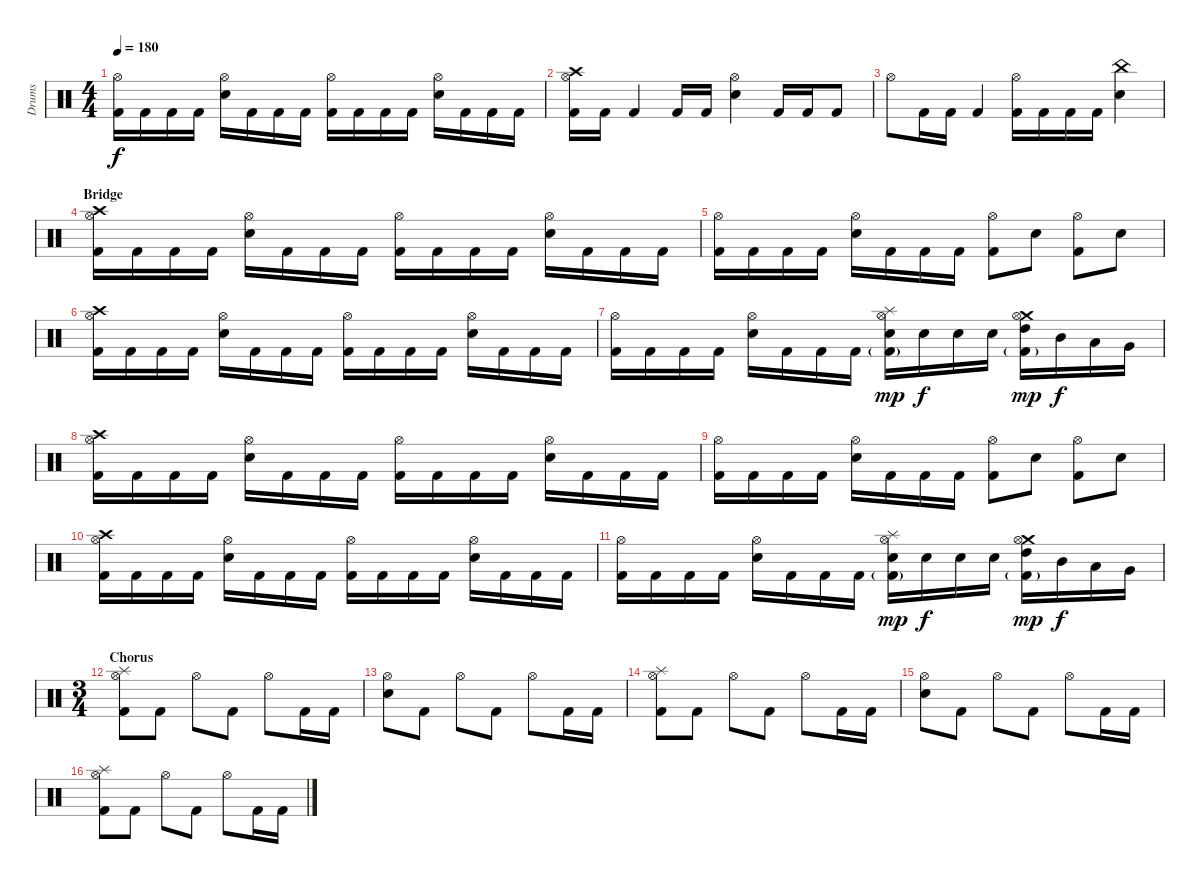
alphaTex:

\track ("Drums" "Drums") {instrument percussion}
\staff {score}
\articulation defaults
\ts (4 4)
\tempo 180
\clef neutral
\ks c
("Hi-Hat (open)" "Kick (hit) 2").16{dy f} "Kick (hit) 2".16 "Kick (hit) 2".16 "Kick (hit) 2".16 ("Hi-Hat (open)" "Electric Snare (hit)").16 "Kick (hit) 2".16 "Kick (hit) 2".16 "Kick (hit) 2".16 ("Hi-Hat (open)" "Kick (hit) 2").16 "Kick (hit) 2".16 "Kick (hit) 2".16 "Kick (hit) 2".16 ("Hi-Hat (open)" "Electric Snare (hit)").16 "Kick (hit) 2".16 "Kick (hit) 2".16 "Kick (hit) 2".16 |
("Crash high (hit)" "Hi-Hat (open)" "Kick (hit) 2").16 "Kick (hit) 2".16 "Kick (hit) 2".4 "Kick (hit) 2".16 "Kick (hit) 2".16 ("Hi-Hat (open)" "Electric Snare (hit)").4 "Kick (hit) 2".16 "Kick (hit) 2".16 "Kick (hit) 2".8 |
"Hi-Hat (open)".8 "Kick (hit) 2".16 "Kick (hit) 2".16 "Kick (hit) 2".4 ("Hi-Hat (open)" "Kick (hit) 2").16 "Kick (hit) 2".16 "Kick (hit) 2".16 "Kick (hit) 2".16 ("China (hit)" "Electric Snare (hit)").4 |
\section ("" "Bridge")
("Crash high (hit)" "Hi-Hat (open)" "Kick (hit) 2").16 "Kick (hit) 2".16 "Kick (hit) 2".16 "Kick (hit) 2".16 ("Hi-Hat (open)" "Electric Snare (hit)").16 "Kick (hit) 2".16 "Kick (hit) 2".16 "Kick (hit) 2".16 ("Hi-Hat (open)" "Kick (hit) 2").16 "Kick (hit) 2".16 "Kick (hit) 2".16 "Kick (hit) 2".16 ("Hi-Hat (open)" "Electric Snare (hit)").16 "Kick (hit) 2".16 "Kick (hit) 2".16 "Kick (hit) 2".16 |
("Hi-Hat (open)" "Kick (hit) 2").16 "Kick (hit) 2".16 "Kick (hit) 2".16 "Kick (hit) 2".16 ("Hi-Hat (open)" "Electric Snare (hit)").16 "Kick (hit) 2".16 "Kick (hit) 2".16 "Kick (hit) 2".16 ("Hi-Hat (open)" "Kick (hit) 2").8 "Electric Snare (hit)".8 ("Hi-Hat (open)" "Kick (hit) 2").8 "Electric Snare (hit)".8 |
("Crash high (hit)" "Hi-Hat (open)" "Kick (hit) 2").16 "Kick (hit) 2".16 "Kick (hit) 2".16 "Kick (hit) 2".16 ("Hi-Hat (open)" "Electric Snare (hit)").16 "Kick (hit) 2".16 "Kick (hit) 2".16 "Kick (hit) 2".16 ("Hi-Hat (open)" "Kick (hit) 2").16 "Kick (hit) 2".16 "Kick (hit) 2".16 "Kick (hit) 2".16 ("Hi-Hat (open)" "Electric Snare (hit)").16 "Kick (hit) 2".16 "Kick (hit) 2".16 "Kick (hit) 2".16 |
("Hi-Hat (open)" "Kick (hit) 2").16 "Kick (hit) 2".16 "Kick (hit) 2".16 "Kick (hit) 2".16 ("Hi-Hat (open)" "Electric Snare (hit)").16 "Kick (hit) 2".16 "Kick (hit) 2".16 "Kick (hit) 2".16 ("Splash (hit)" "Hi-Hat (open)" "Electric Snare (hit)" "Kick (hit) 2"{g}).16{dy mp} "Electric Snare (hit)".16{dy f} "Electric Snare (hit)".16 "Electric Snare (hit)".16 ("Crash medium (hit)" "Hi-Hat (open)" "High Tom (hit)" "Kick (hit) 2"{g}).16{dy mp} "Mid Tom (hit)".16{dy f} "Low Tom (hit)".16 "Very Low Tom (hit)".16 |
("Crash high (hit)" "Hi-Hat (open)" "Kick (hit) 2").16 "Kick (hit) 2".16 "Kick (hit) 2".16 "Kick (hit) 2".16 ("Hi-Hat (open)" "Electric Snare (hit)").16 "Kick (hit) 2".16 "Kick (hit) 2".16 "Kick (hit) 2".16 ("Hi-Hat (open)" "Kick (hit) 2").16 "Kick (hit) 2".16 "Kick (hit) 2".16 "Kick (hit) 2".16 ("Hi-Hat (open)" "Electric Snare (hit)").16 "Kick (hit) 2".16 "Kick (hit) 2".16 "Kick (hit) 2".16 |
("Hi-Hat (open)" "Kick (hit) 2").16 "Kick (hit) 2".16 "Kick (hit) 2".16 "Kick (hit) 2".16 ("Hi-Hat (open)" "Electric Snare (hit)").16 "Kick (hit) 2".16 "Kick (hit) 2".16 "Kick (hit) 2".16 ("Hi-Hat (open)" "Kick (hit) 2").8 "Electric Snare (hit)".8 ("Hi-Hat (open)" "Kick (hit) 2").8 "Electric Snare (hit)".8 |
("Crash high (hit)" "Hi-Hat (open)" "Kick (hit) 2").16 "Kick (hit) 2".16 "Kick (hit) 2".16 "Kick (hit) 2".16 ("Hi-Hat (open)" "Electric Snare (hit)").16 "Kick (hit) 2".16 "Kick (hit) 2".16 "Kick (hit) 2".16 ("Hi-Hat (open)" "Kick (hit) 2").16 "Kick (hit) 2".16 "Kick (hit) 2".16 "Kick (hit) 2".16 ("Hi-Hat (open)" "Electric Snare (hit)").16 "Kick (hit) 2".16 "Kick (hit) 2".16 "Kick (hit) 2".16 |
("Hi-Hat (open)" "Kick (hit) 2").16 "Kick (hit) 2".16 "Kick (hit) 2".16 "Kick (hit) 2".16 ("Hi-Hat (open)" "Electric Snare (hit)").16 "Kick (hit) 2".16 "Kick (hit) 2".16 "Kick (hit) 2".16 ("Splash (hit)" "Hi-Hat (open)" "Electric Snare (hit)" "Kick (hit) 2"{g}).16{dy mp} "Electric Snare (hit)".16{dy f} "Electric Snare (hit)".16 "Electric Snare (hit)".16 ("Crash medium (hit)" "Hi-Hat (open)" "High Tom (hit)" "Kick (hit) 2"{g}).16{dy mp} "Mid Tom (hit)".16{dy f} "Low Tom (hit)".16 "Very Low Tom (hit)".16 |
\ts (3 4)
\section ("" "Chorus")
("Splash (hit)" "Hi-Hat (open)" "Kick (hit) 2").8 "Kick (hit) 2".8 "Hi-Hat (open)".8 "Kick (hit) 2".8 "Hi-Hat (open)".8 "Kick (hit) 2".16 "Kick (hit) 2".16 |
("Hi-Hat (open)" "Electric Snare (hit)").8 "Kick (hit) 2".8 "Hi-Hat (open)".8 "Kick (hit) 2".8 "Hi-Hat (open)".8 "Kick (hit) 2".16 "Kick (hit) 2".16 |
("Splash (hit)" "Hi-Hat (open)" "Kick (hit) 2").8 "Kick (hit) 2".8 "Hi-Hat (open)".8 "Kick (hit) 2".8 "Hi-Hat (open)".8 "Kick (hit) 2".16 "Kick (hit) 2".16 |
("Hi-Hat (open)" "Electric Snare (hit)").8 "Kick (hit) 2".8 "Hi-Hat (open)".8 "Kick (hit) 2".8 "Hi-Hat (open)".8 "Kick (hit) 2".16 "Kick (hit) 2".16 |
("Splash (hit)" "Hi-Hat (open)" "Kick (hit) 2").8 "Kick (hit) 2".8 "Hi-Hat (open)".8 "Kick (hit) 2".8 "Hi-Hat (open)".8 "Kick (hit) 2".16 "Kick (hit) 2".16
